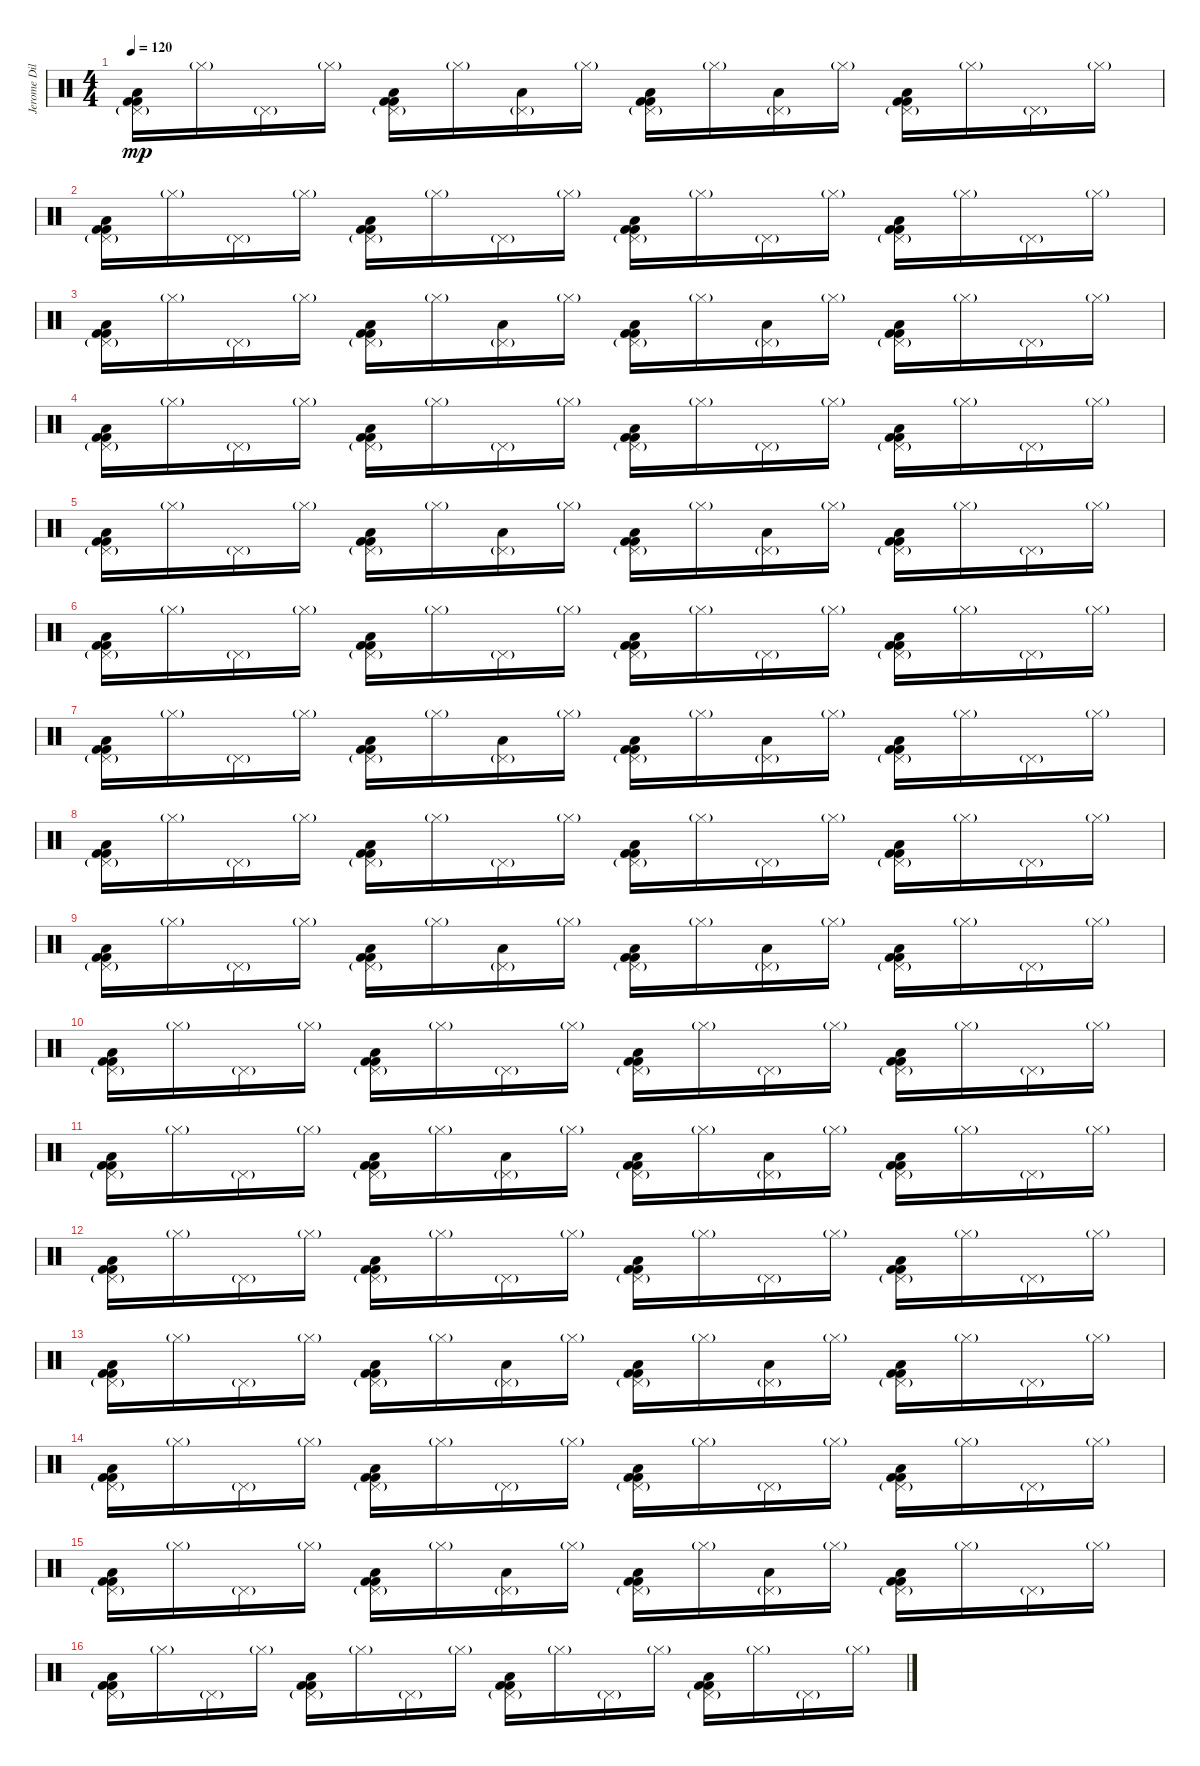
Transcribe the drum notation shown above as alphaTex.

\track ("Jerome Dillon" "Jerome Dil") {instrument percussion}
\staff {score}
\articulation defaults
\ts (4 4)
\tempo 120
\clef neutral
\ks c
("Pedal Hi-Hat (hit)"{g} "Low Tom (hit)" "Kick (hit) 2" "Kick (hit) 2").16{dy mp} "Hi-Hat (closed)"{g}.16 "Pedal Hi-Hat (hit)"{g}.16 "Hi-Hat (closed)"{g}.16 ("Pedal Hi-Hat (hit)"{g} "Low Tom (hit)" "Kick (hit) 2" "Kick (hit) 2").16 "Hi-Hat (closed)"{g}.16 ("Pedal Hi-Hat (hit)"{g} "Low Floor Tom (hit)").16 "Hi-Hat (closed)"{g}.16 ("Pedal Hi-Hat (hit)"{g} "Low Tom (hit)" "Kick (hit) 2" "Kick (hit) 2").16 "Hi-Hat (closed)"{g}.16 ("Pedal Hi-Hat (hit)"{g} "Low Floor Tom (hit)").16 "Hi-Hat (closed)"{g}.16 ("Pedal Hi-Hat (hit)"{g} "Low Tom (hit)" "Kick (hit) 2" "Kick (hit) 2").16 "Hi-Hat (closed)"{g}.16 "Pedal Hi-Hat (hit)"{g}.16 "Hi-Hat (closed)"{g}.16 |
("Pedal Hi-Hat (hit)"{g} "Low Tom (hit)" "Kick (hit) 2" "Kick (hit) 2").16 "Hi-Hat (closed)"{g}.16 "Pedal Hi-Hat (hit)"{g}.16 "Hi-Hat (closed)"{g}.16 ("Pedal Hi-Hat (hit)"{g} "Low Tom (hit)" "Kick (hit) 2" "Kick (hit) 2").16 "Hi-Hat (closed)"{g}.16 "Pedal Hi-Hat (hit)"{g}.16 "Hi-Hat (closed)"{g}.16 ("Pedal Hi-Hat (hit)"{g} "Low Tom (hit)" "Kick (hit) 2" "Kick (hit) 2").16 "Hi-Hat (closed)"{g}.16 "Pedal Hi-Hat (hit)"{g}.16 "Hi-Hat (closed)"{g}.16 ("Pedal Hi-Hat (hit)"{g} "Low Tom (hit)" "Kick (hit) 2" "Kick (hit) 2").16 "Hi-Hat (closed)"{g}.16 "Pedal Hi-Hat (hit)"{g}.16 "Hi-Hat (closed)"{g}.16 |
("Pedal Hi-Hat (hit)"{g} "Low Tom (hit)" "Kick (hit) 2" "Kick (hit) 2").16 "Hi-Hat (closed)"{g}.16 "Pedal Hi-Hat (hit)"{g}.16 "Hi-Hat (closed)"{g}.16 ("Pedal Hi-Hat (hit)"{g} "Low Tom (hit)" "Kick (hit) 2" "Kick (hit) 2").16 "Hi-Hat (closed)"{g}.16 ("Pedal Hi-Hat (hit)"{g} "Low Floor Tom (hit)").16 "Hi-Hat (closed)"{g}.16 ("Pedal Hi-Hat (hit)"{g} "Low Tom (hit)" "Kick (hit) 2" "Kick (hit) 2").16 "Hi-Hat (closed)"{g}.16 ("Pedal Hi-Hat (hit)"{g} "Low Floor Tom (hit)").16 "Hi-Hat (closed)"{g}.16 ("Pedal Hi-Hat (hit)"{g} "Low Tom (hit)" "Kick (hit) 2" "Kick (hit) 2").16 "Hi-Hat (closed)"{g}.16 "Pedal Hi-Hat (hit)"{g}.16 "Hi-Hat (closed)"{g}.16 |
("Pedal Hi-Hat (hit)"{g} "Low Tom (hit)" "Kick (hit) 2" "Kick (hit) 2").16 "Hi-Hat (closed)"{g}.16 "Pedal Hi-Hat (hit)"{g}.16 "Hi-Hat (closed)"{g}.16 ("Pedal Hi-Hat (hit)"{g} "Low Tom (hit)" "Kick (hit) 2" "Kick (hit) 2").16 "Hi-Hat (closed)"{g}.16 "Pedal Hi-Hat (hit)"{g}.16 "Hi-Hat (closed)"{g}.16 ("Pedal Hi-Hat (hit)"{g} "Low Tom (hit)" "Kick (hit) 2" "Kick (hit) 2").16 "Hi-Hat (closed)"{g}.16 "Pedal Hi-Hat (hit)"{g}.16 "Hi-Hat (closed)"{g}.16 ("Pedal Hi-Hat (hit)"{g} "Low Tom (hit)" "Kick (hit) 2" "Kick (hit) 2").16 "Hi-Hat (closed)"{g}.16 "Pedal Hi-Hat (hit)"{g}.16 "Hi-Hat (closed)"{g}.16 |
("Pedal Hi-Hat (hit)"{g} "Low Tom (hit)" "Kick (hit) 2" "Kick (hit) 2").16 "Hi-Hat (closed)"{g}.16 "Pedal Hi-Hat (hit)"{g}.16 "Hi-Hat (closed)"{g}.16 ("Pedal Hi-Hat (hit)"{g} "Low Tom (hit)" "Kick (hit) 2" "Kick (hit) 2").16 "Hi-Hat (closed)"{g}.16 ("Pedal Hi-Hat (hit)"{g} "Low Floor Tom (hit)").16 "Hi-Hat (closed)"{g}.16 ("Pedal Hi-Hat (hit)"{g} "Low Tom (hit)" "Kick (hit) 2" "Kick (hit) 2").16 "Hi-Hat (closed)"{g}.16 ("Pedal Hi-Hat (hit)"{g} "Low Floor Tom (hit)").16 "Hi-Hat (closed)"{g}.16 ("Pedal Hi-Hat (hit)"{g} "Low Tom (hit)" "Kick (hit) 2" "Kick (hit) 2").16 "Hi-Hat (closed)"{g}.16 "Pedal Hi-Hat (hit)"{g}.16 "Hi-Hat (closed)"{g}.16 |
("Pedal Hi-Hat (hit)"{g} "Low Tom (hit)" "Kick (hit) 2" "Kick (hit) 2").16 "Hi-Hat (closed)"{g}.16 "Pedal Hi-Hat (hit)"{g}.16 "Hi-Hat (closed)"{g}.16 ("Pedal Hi-Hat (hit)"{g} "Low Tom (hit)" "Kick (hit) 2" "Kick (hit) 2").16 "Hi-Hat (closed)"{g}.16 "Pedal Hi-Hat (hit)"{g}.16 "Hi-Hat (closed)"{g}.16 ("Pedal Hi-Hat (hit)"{g} "Low Tom (hit)" "Kick (hit) 2" "Kick (hit) 2").16 "Hi-Hat (closed)"{g}.16 "Pedal Hi-Hat (hit)"{g}.16 "Hi-Hat (closed)"{g}.16 ("Pedal Hi-Hat (hit)"{g} "Low Tom (hit)" "Kick (hit) 2" "Kick (hit) 2").16 "Hi-Hat (closed)"{g}.16 "Pedal Hi-Hat (hit)"{g}.16 "Hi-Hat (closed)"{g}.16 |
("Pedal Hi-Hat (hit)"{g} "Low Tom (hit)" "Kick (hit) 2" "Kick (hit) 2").16 "Hi-Hat (closed)"{g}.16 "Pedal Hi-Hat (hit)"{g}.16 "Hi-Hat (closed)"{g}.16 ("Pedal Hi-Hat (hit)"{g} "Low Tom (hit)" "Kick (hit) 2" "Kick (hit) 2").16 "Hi-Hat (closed)"{g}.16 ("Pedal Hi-Hat (hit)"{g} "Low Floor Tom (hit)").16 "Hi-Hat (closed)"{g}.16 ("Pedal Hi-Hat (hit)"{g} "Low Tom (hit)" "Kick (hit) 2" "Kick (hit) 2").16 "Hi-Hat (closed)"{g}.16 ("Pedal Hi-Hat (hit)"{g} "Low Floor Tom (hit)").16 "Hi-Hat (closed)"{g}.16 ("Pedal Hi-Hat (hit)"{g} "Low Tom (hit)" "Kick (hit) 2" "Kick (hit) 2").16 "Hi-Hat (closed)"{g}.16 "Pedal Hi-Hat (hit)"{g}.16 "Hi-Hat (closed)"{g}.16 |
("Pedal Hi-Hat (hit)"{g} "Low Tom (hit)" "Kick (hit) 2" "Kick (hit) 2").16 "Hi-Hat (closed)"{g}.16 "Pedal Hi-Hat (hit)"{g}.16 "Hi-Hat (closed)"{g}.16 ("Pedal Hi-Hat (hit)"{g} "Low Tom (hit)" "Kick (hit) 2" "Kick (hit) 2").16 "Hi-Hat (closed)"{g}.16 "Pedal Hi-Hat (hit)"{g}.16 "Hi-Hat (closed)"{g}.16 ("Pedal Hi-Hat (hit)"{g} "Low Tom (hit)" "Kick (hit) 2" "Kick (hit) 2").16 "Hi-Hat (closed)"{g}.16 "Pedal Hi-Hat (hit)"{g}.16 "Hi-Hat (closed)"{g}.16 ("Pedal Hi-Hat (hit)"{g} "Low Tom (hit)" "Kick (hit) 2" "Kick (hit) 2").16 "Hi-Hat (closed)"{g}.16 "Pedal Hi-Hat (hit)"{g}.16 "Hi-Hat (closed)"{g}.16 |
("Pedal Hi-Hat (hit)"{g} "Low Tom (hit)" "Kick (hit) 2" "Kick (hit) 2").16 "Hi-Hat (closed)"{g}.16 "Pedal Hi-Hat (hit)"{g}.16 "Hi-Hat (closed)"{g}.16 ("Pedal Hi-Hat (hit)"{g} "Low Tom (hit)" "Kick (hit) 2" "Kick (hit) 2").16 "Hi-Hat (closed)"{g}.16 ("Pedal Hi-Hat (hit)"{g} "Low Floor Tom (hit)").16 "Hi-Hat (closed)"{g}.16 ("Pedal Hi-Hat (hit)"{g} "Low Tom (hit)" "Kick (hit) 2" "Kick (hit) 2").16 "Hi-Hat (closed)"{g}.16 ("Pedal Hi-Hat (hit)"{g} "Low Floor Tom (hit)").16 "Hi-Hat (closed)"{g}.16 ("Pedal Hi-Hat (hit)"{g} "Low Tom (hit)" "Kick (hit) 2" "Kick (hit) 2").16 "Hi-Hat (closed)"{g}.16 "Pedal Hi-Hat (hit)"{g}.16 "Hi-Hat (closed)"{g}.16 |
("Pedal Hi-Hat (hit)"{g} "Low Tom (hit)" "Kick (hit) 2" "Kick (hit) 2").16 "Hi-Hat (closed)"{g}.16 "Pedal Hi-Hat (hit)"{g}.16 "Hi-Hat (closed)"{g}.16 ("Pedal Hi-Hat (hit)"{g} "Low Tom (hit)" "Kick (hit) 2" "Kick (hit) 2").16 "Hi-Hat (closed)"{g}.16 "Pedal Hi-Hat (hit)"{g}.16 "Hi-Hat (closed)"{g}.16 ("Pedal Hi-Hat (hit)"{g} "Low Tom (hit)" "Kick (hit) 2" "Kick (hit) 2").16 "Hi-Hat (closed)"{g}.16 "Pedal Hi-Hat (hit)"{g}.16 "Hi-Hat (closed)"{g}.16 ("Pedal Hi-Hat (hit)"{g} "Low Tom (hit)" "Kick (hit) 2" "Kick (hit) 2").16 "Hi-Hat (closed)"{g}.16 "Pedal Hi-Hat (hit)"{g}.16 "Hi-Hat (closed)"{g}.16 |
("Pedal Hi-Hat (hit)"{g} "Low Tom (hit)" "Kick (hit) 2" "Kick (hit) 2").16 "Hi-Hat (closed)"{g}.16 "Pedal Hi-Hat (hit)"{g}.16 "Hi-Hat (closed)"{g}.16 ("Pedal Hi-Hat (hit)"{g} "Low Tom (hit)" "Kick (hit) 2" "Kick (hit) 2").16 "Hi-Hat (closed)"{g}.16 ("Pedal Hi-Hat (hit)"{g} "Low Floor Tom (hit)").16 "Hi-Hat (closed)"{g}.16 ("Pedal Hi-Hat (hit)"{g} "Low Tom (hit)" "Kick (hit) 2" "Kick (hit) 2").16 "Hi-Hat (closed)"{g}.16 ("Pedal Hi-Hat (hit)"{g} "Low Floor Tom (hit)").16 "Hi-Hat (closed)"{g}.16 ("Pedal Hi-Hat (hit)"{g} "Low Tom (hit)" "Kick (hit) 2" "Kick (hit) 2").16 "Hi-Hat (closed)"{g}.16 "Pedal Hi-Hat (hit)"{g}.16 "Hi-Hat (closed)"{g}.16 |
("Pedal Hi-Hat (hit)"{g} "Low Tom (hit)" "Kick (hit) 2" "Kick (hit) 2").16 "Hi-Hat (closed)"{g}.16 "Pedal Hi-Hat (hit)"{g}.16 "Hi-Hat (closed)"{g}.16 ("Pedal Hi-Hat (hit)"{g} "Low Tom (hit)" "Kick (hit) 2" "Kick (hit) 2").16 "Hi-Hat (closed)"{g}.16 "Pedal Hi-Hat (hit)"{g}.16 "Hi-Hat (closed)"{g}.16 ("Pedal Hi-Hat (hit)"{g} "Low Tom (hit)" "Kick (hit) 2" "Kick (hit) 2").16 "Hi-Hat (closed)"{g}.16 "Pedal Hi-Hat (hit)"{g}.16 "Hi-Hat (closed)"{g}.16 ("Pedal Hi-Hat (hit)"{g} "Low Tom (hit)" "Kick (hit) 2" "Kick (hit) 2").16 "Hi-Hat (closed)"{g}.16 "Pedal Hi-Hat (hit)"{g}.16 "Hi-Hat (closed)"{g}.16 |
("Pedal Hi-Hat (hit)"{g} "Low Tom (hit)" "Kick (hit) 2" "Kick (hit) 2").16 "Hi-Hat (closed)"{g}.16 "Pedal Hi-Hat (hit)"{g}.16 "Hi-Hat (closed)"{g}.16 ("Pedal Hi-Hat (hit)"{g} "Low Tom (hit)" "Kick (hit) 2" "Kick (hit) 2").16 "Hi-Hat (closed)"{g}.16 ("Pedal Hi-Hat (hit)"{g} "Low Floor Tom (hit)").16 "Hi-Hat (closed)"{g}.16 ("Pedal Hi-Hat (hit)"{g} "Low Tom (hit)" "Kick (hit) 2" "Kick (hit) 2").16 "Hi-Hat (closed)"{g}.16 ("Pedal Hi-Hat (hit)"{g} "Low Floor Tom (hit)").16 "Hi-Hat (closed)"{g}.16 ("Pedal Hi-Hat (hit)"{g} "Low Tom (hit)" "Kick (hit) 2" "Kick (hit) 2").16 "Hi-Hat (closed)"{g}.16 "Pedal Hi-Hat (hit)"{g}.16 "Hi-Hat (closed)"{g}.16 |
("Pedal Hi-Hat (hit)"{g} "Low Tom (hit)" "Kick (hit) 2" "Kick (hit) 2").16 "Hi-Hat (closed)"{g}.16 "Pedal Hi-Hat (hit)"{g}.16 "Hi-Hat (closed)"{g}.16 ("Pedal Hi-Hat (hit)"{g} "Low Tom (hit)" "Kick (hit) 2" "Kick (hit) 2").16 "Hi-Hat (closed)"{g}.16 "Pedal Hi-Hat (hit)"{g}.16 "Hi-Hat (closed)"{g}.16 ("Pedal Hi-Hat (hit)"{g} "Low Tom (hit)" "Kick (hit) 2" "Kick (hit) 2").16 "Hi-Hat (closed)"{g}.16 "Pedal Hi-Hat (hit)"{g}.16 "Hi-Hat (closed)"{g}.16 ("Pedal Hi-Hat (hit)"{g} "Low Tom (hit)" "Kick (hit) 2" "Kick (hit) 2").16 "Hi-Hat (closed)"{g}.16 "Pedal Hi-Hat (hit)"{g}.16 "Hi-Hat (closed)"{g}.16 |
("Pedal Hi-Hat (hit)"{g} "Low Tom (hit)" "Kick (hit) 2" "Kick (hit) 2").16 "Hi-Hat (closed)"{g}.16 "Pedal Hi-Hat (hit)"{g}.16 "Hi-Hat (closed)"{g}.16 ("Pedal Hi-Hat (hit)"{g} "Low Tom (hit)" "Kick (hit) 2" "Kick (hit) 2").16 "Hi-Hat (closed)"{g}.16 ("Pedal Hi-Hat (hit)"{g} "Low Floor Tom (hit)").16 "Hi-Hat (closed)"{g}.16 ("Pedal Hi-Hat (hit)"{g} "Low Tom (hit)" "Kick (hit) 2" "Kick (hit) 2").16 "Hi-Hat (closed)"{g}.16 ("Pedal Hi-Hat (hit)"{g} "Low Floor Tom (hit)").16 "Hi-Hat (closed)"{g}.16 ("Pedal Hi-Hat (hit)"{g} "Low Tom (hit)" "Kick (hit) 2" "Kick (hit) 2").16 "Hi-Hat (closed)"{g}.16 "Pedal Hi-Hat (hit)"{g}.16 "Hi-Hat (closed)"{g}.16 |
("Pedal Hi-Hat (hit)"{g} "Low Tom (hit)" "Kick (hit) 2" "Kick (hit) 2").16 "Hi-Hat (closed)"{g}.16 "Pedal Hi-Hat (hit)"{g}.16 "Hi-Hat (closed)"{g}.16 ("Pedal Hi-Hat (hit)"{g} "Low Tom (hit)" "Kick (hit) 2" "Kick (hit) 2").16 "Hi-Hat (closed)"{g}.16 "Pedal Hi-Hat (hit)"{g}.16 "Hi-Hat (closed)"{g}.16 ("Pedal Hi-Hat (hit)"{g} "Low Tom (hit)" "Kick (hit) 2" "Kick (hit) 2").16 "Hi-Hat (closed)"{g}.16 "Pedal Hi-Hat (hit)"{g}.16 "Hi-Hat (closed)"{g}.16 ("Pedal Hi-Hat (hit)"{g} "Low Tom (hit)" "Kick (hit) 2" "Kick (hit) 2").16 "Hi-Hat (closed)"{g}.16 "Pedal Hi-Hat (hit)"{g}.16 "Hi-Hat (closed)"{g}.16
